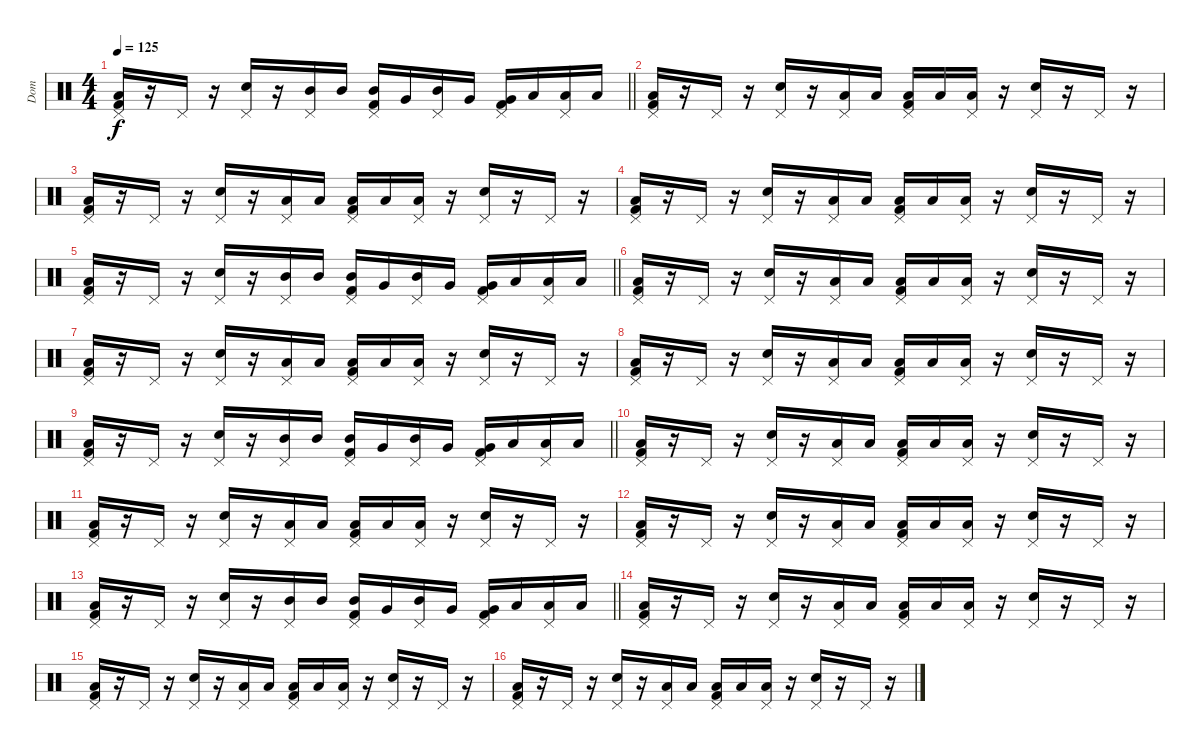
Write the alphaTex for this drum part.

\track ("Dom" "Dom") {instrument percussion}
\staff {score}
\articulation defaults
\ts (4 4)
\tempo 125
\clef neutral
\barLineRight lightlight
\ks c
("Low Floor Tom (hit)" "Pedal Hi-Hat (hit)" "Kick (hit) 2").16{dy f} r.16 "Pedal Hi-Hat (hit)".16 r.16 ("Snare (hit) 2" "Pedal Hi-Hat (hit)").16 r.16 ("Mid Tom (hit)" "Pedal Hi-Hat (hit)").16 "Mid Tom (hit)".16 ("Mid Tom (hit)" "Pedal Hi-Hat (hit)" "Kick (hit) 2").16 "Very Low Tom (hit)".16 ("Mid Tom (hit)" "Pedal Hi-Hat (hit)").16 "Very Low Tom (hit)".16 ("Very Low Tom (hit)" "Pedal Hi-Hat (hit)" "Kick (hit) 2").16 "Low Floor Tom (hit)".16 ("Low Floor Tom (hit)" "Pedal Hi-Hat (hit)").16 "Low Floor Tom (hit)".16 |
("Low Floor Tom (hit)" "Pedal Hi-Hat (hit)" "Kick (hit) 2").16 r.16 "Pedal Hi-Hat (hit)".16 r.16 ("Snare (hit) 2" "Pedal Hi-Hat (hit)").16 r.16 ("Low Floor Tom (hit)" "Pedal Hi-Hat (hit)").16 "Low Floor Tom (hit)".16 ("Low Floor Tom (hit)" "Pedal Hi-Hat (hit)" "Kick (hit) 2").16 "Low Floor Tom (hit)".16 ("Low Floor Tom (hit)" "Pedal Hi-Hat (hit)").16 r.16 ("Snare (hit) 2" "Pedal Hi-Hat (hit)").16 r.16 "Pedal Hi-Hat (hit)".16 r.16 |
("Low Floor Tom (hit)" "Pedal Hi-Hat (hit)" "Kick (hit) 2").16 r.16 "Pedal Hi-Hat (hit)".16 r.16 ("Snare (hit) 2" "Pedal Hi-Hat (hit)").16 r.16 ("Low Floor Tom (hit)" "Pedal Hi-Hat (hit)").16 "Low Floor Tom (hit)".16 ("Low Floor Tom (hit)" "Pedal Hi-Hat (hit)" "Kick (hit) 2").16 "Low Floor Tom (hit)".16 ("Low Floor Tom (hit)" "Pedal Hi-Hat (hit)").16 r.16 ("Snare (hit) 2" "Pedal Hi-Hat (hit)").16 r.16 "Pedal Hi-Hat (hit)".16 r.16 |
("Low Floor Tom (hit)" "Pedal Hi-Hat (hit)" "Kick (hit) 2").16 r.16 "Pedal Hi-Hat (hit)".16 r.16 ("Snare (hit) 2" "Pedal Hi-Hat (hit)").16 r.16 ("Low Floor Tom (hit)" "Pedal Hi-Hat (hit)").16 "Low Floor Tom (hit)".16 ("Low Floor Tom (hit)" "Pedal Hi-Hat (hit)" "Kick (hit) 2").16 "Low Floor Tom (hit)".16 ("Low Floor Tom (hit)" "Pedal Hi-Hat (hit)").16 r.16 ("Snare (hit) 2" "Pedal Hi-Hat (hit)").16 r.16 "Pedal Hi-Hat (hit)".16 r.16 |
\barLineRight lightlight
("Low Floor Tom (hit)" "Pedal Hi-Hat (hit)" "Kick (hit) 2").16 r.16 "Pedal Hi-Hat (hit)".16 r.16 ("Snare (hit) 2" "Pedal Hi-Hat (hit)").16 r.16 ("Mid Tom (hit)" "Pedal Hi-Hat (hit)").16 "Mid Tom (hit)".16 ("Mid Tom (hit)" "Pedal Hi-Hat (hit)" "Kick (hit) 2").16 "Very Low Tom (hit)".16 ("Mid Tom (hit)" "Pedal Hi-Hat (hit)").16 "Very Low Tom (hit)".16 ("Very Low Tom (hit)" "Pedal Hi-Hat (hit)" "Kick (hit) 2").16 "Low Floor Tom (hit)".16 ("Low Floor Tom (hit)" "Pedal Hi-Hat (hit)").16 "Low Floor Tom (hit)".16 |
("Low Floor Tom (hit)" "Pedal Hi-Hat (hit)" "Kick (hit) 2").16 r.16 "Pedal Hi-Hat (hit)".16 r.16 ("Snare (hit) 2" "Pedal Hi-Hat (hit)").16 r.16 ("Low Floor Tom (hit)" "Pedal Hi-Hat (hit)").16 "Low Floor Tom (hit)".16 ("Low Floor Tom (hit)" "Pedal Hi-Hat (hit)" "Kick (hit) 2").16 "Low Floor Tom (hit)".16 ("Low Floor Tom (hit)" "Pedal Hi-Hat (hit)").16 r.16 ("Snare (hit) 2" "Pedal Hi-Hat (hit)").16 r.16 "Pedal Hi-Hat (hit)".16 r.16 |
("Low Floor Tom (hit)" "Pedal Hi-Hat (hit)" "Kick (hit) 2").16 r.16 "Pedal Hi-Hat (hit)".16 r.16 ("Snare (hit) 2" "Pedal Hi-Hat (hit)").16 r.16 ("Low Floor Tom (hit)" "Pedal Hi-Hat (hit)").16 "Low Floor Tom (hit)".16 ("Low Floor Tom (hit)" "Pedal Hi-Hat (hit)" "Kick (hit) 2").16 "Low Floor Tom (hit)".16 ("Low Floor Tom (hit)" "Pedal Hi-Hat (hit)").16 r.16 ("Snare (hit) 2" "Pedal Hi-Hat (hit)").16 r.16 "Pedal Hi-Hat (hit)".16 r.16 |
("Low Floor Tom (hit)" "Pedal Hi-Hat (hit)" "Kick (hit) 2").16 r.16 "Pedal Hi-Hat (hit)".16 r.16 ("Snare (hit) 2" "Pedal Hi-Hat (hit)").16 r.16 ("Low Floor Tom (hit)" "Pedal Hi-Hat (hit)").16 "Low Floor Tom (hit)".16 ("Low Floor Tom (hit)" "Pedal Hi-Hat (hit)" "Kick (hit) 2").16 "Low Floor Tom (hit)".16 ("Low Floor Tom (hit)" "Pedal Hi-Hat (hit)").16 r.16 ("Snare (hit) 2" "Pedal Hi-Hat (hit)").16 r.16 "Pedal Hi-Hat (hit)".16 r.16 |
\barLineRight lightlight
("Low Floor Tom (hit)" "Pedal Hi-Hat (hit)" "Kick (hit) 2").16 r.16 "Pedal Hi-Hat (hit)".16 r.16 ("Snare (hit) 2" "Pedal Hi-Hat (hit)").16 r.16 ("Mid Tom (hit)" "Pedal Hi-Hat (hit)").16 "Mid Tom (hit)".16 ("Mid Tom (hit)" "Pedal Hi-Hat (hit)" "Kick (hit) 2").16 "Very Low Tom (hit)".16 ("Mid Tom (hit)" "Pedal Hi-Hat (hit)").16 "Very Low Tom (hit)".16 ("Very Low Tom (hit)" "Pedal Hi-Hat (hit)" "Kick (hit) 2").16 "Low Floor Tom (hit)".16 ("Low Floor Tom (hit)" "Pedal Hi-Hat (hit)").16 "Low Floor Tom (hit)".16 |
("Low Floor Tom (hit)" "Pedal Hi-Hat (hit)" "Kick (hit) 2").16 r.16 "Pedal Hi-Hat (hit)".16 r.16 ("Snare (hit) 2" "Pedal Hi-Hat (hit)").16 r.16 ("Low Floor Tom (hit)" "Pedal Hi-Hat (hit)").16 "Low Floor Tom (hit)".16 ("Low Floor Tom (hit)" "Pedal Hi-Hat (hit)" "Kick (hit) 2").16 "Low Floor Tom (hit)".16 ("Low Floor Tom (hit)" "Pedal Hi-Hat (hit)").16 r.16 ("Snare (hit) 2" "Pedal Hi-Hat (hit)").16 r.16 "Pedal Hi-Hat (hit)".16 r.16 |
("Low Floor Tom (hit)" "Pedal Hi-Hat (hit)" "Kick (hit) 2").16 r.16 "Pedal Hi-Hat (hit)".16 r.16 ("Snare (hit) 2" "Pedal Hi-Hat (hit)").16 r.16 ("Low Floor Tom (hit)" "Pedal Hi-Hat (hit)").16 "Low Floor Tom (hit)".16 ("Low Floor Tom (hit)" "Pedal Hi-Hat (hit)" "Kick (hit) 2").16 "Low Floor Tom (hit)".16 ("Low Floor Tom (hit)" "Pedal Hi-Hat (hit)").16 r.16 ("Snare (hit) 2" "Pedal Hi-Hat (hit)").16 r.16 "Pedal Hi-Hat (hit)".16 r.16 |
("Low Floor Tom (hit)" "Pedal Hi-Hat (hit)" "Kick (hit) 2").16 r.16 "Pedal Hi-Hat (hit)".16 r.16 ("Snare (hit) 2" "Pedal Hi-Hat (hit)").16 r.16 ("Low Floor Tom (hit)" "Pedal Hi-Hat (hit)").16 "Low Floor Tom (hit)".16 ("Low Floor Tom (hit)" "Pedal Hi-Hat (hit)" "Kick (hit) 2").16 "Low Floor Tom (hit)".16 ("Low Floor Tom (hit)" "Pedal Hi-Hat (hit)").16 r.16 ("Snare (hit) 2" "Pedal Hi-Hat (hit)").16 r.16 "Pedal Hi-Hat (hit)".16 r.16 |
\barLineRight lightlight
("Low Floor Tom (hit)" "Pedal Hi-Hat (hit)" "Kick (hit) 2").16 r.16 "Pedal Hi-Hat (hit)".16 r.16 ("Snare (hit) 2" "Pedal Hi-Hat (hit)").16 r.16 ("Mid Tom (hit)" "Pedal Hi-Hat (hit)").16 "Mid Tom (hit)".16 ("Mid Tom (hit)" "Pedal Hi-Hat (hit)" "Kick (hit) 2").16 "Very Low Tom (hit)".16 ("Mid Tom (hit)" "Pedal Hi-Hat (hit)").16 "Very Low Tom (hit)".16 ("Very Low Tom (hit)" "Pedal Hi-Hat (hit)" "Kick (hit) 2").16 "Low Floor Tom (hit)".16 ("Low Floor Tom (hit)" "Pedal Hi-Hat (hit)").16 "Low Floor Tom (hit)".16 |
("Low Floor Tom (hit)" "Pedal Hi-Hat (hit)" "Kick (hit) 2").16 r.16 "Pedal Hi-Hat (hit)".16 r.16 ("Snare (hit) 2" "Pedal Hi-Hat (hit)").16 r.16 ("Low Floor Tom (hit)" "Pedal Hi-Hat (hit)").16 "Low Floor Tom (hit)".16 ("Low Floor Tom (hit)" "Pedal Hi-Hat (hit)" "Kick (hit) 2").16 "Low Floor Tom (hit)".16 ("Low Floor Tom (hit)" "Pedal Hi-Hat (hit)").16 r.16 ("Snare (hit) 2" "Pedal Hi-Hat (hit)").16 r.16 "Pedal Hi-Hat (hit)".16 r.16 |
("Low Floor Tom (hit)" "Pedal Hi-Hat (hit)" "Kick (hit) 2").16 r.16 "Pedal Hi-Hat (hit)".16 r.16 ("Snare (hit) 2" "Pedal Hi-Hat (hit)").16 r.16 ("Low Floor Tom (hit)" "Pedal Hi-Hat (hit)").16 "Low Floor Tom (hit)".16 ("Low Floor Tom (hit)" "Pedal Hi-Hat (hit)" "Kick (hit) 2").16 "Low Floor Tom (hit)".16 ("Low Floor Tom (hit)" "Pedal Hi-Hat (hit)").16 r.16 ("Snare (hit) 2" "Pedal Hi-Hat (hit)").16 r.16 "Pedal Hi-Hat (hit)".16 r.16 |
("Low Floor Tom (hit)" "Pedal Hi-Hat (hit)" "Kick (hit) 2").16 r.16 "Pedal Hi-Hat (hit)".16 r.16 ("Snare (hit) 2" "Pedal Hi-Hat (hit)").16 r.16 ("Low Floor Tom (hit)" "Pedal Hi-Hat (hit)").16 "Low Floor Tom (hit)".16 ("Low Floor Tom (hit)" "Pedal Hi-Hat (hit)" "Kick (hit) 2").16 "Low Floor Tom (hit)".16 ("Low Floor Tom (hit)" "Pedal Hi-Hat (hit)").16 r.16 ("Snare (hit) 2" "Pedal Hi-Hat (hit)").16 r.16 "Pedal Hi-Hat (hit)".16 r.16
